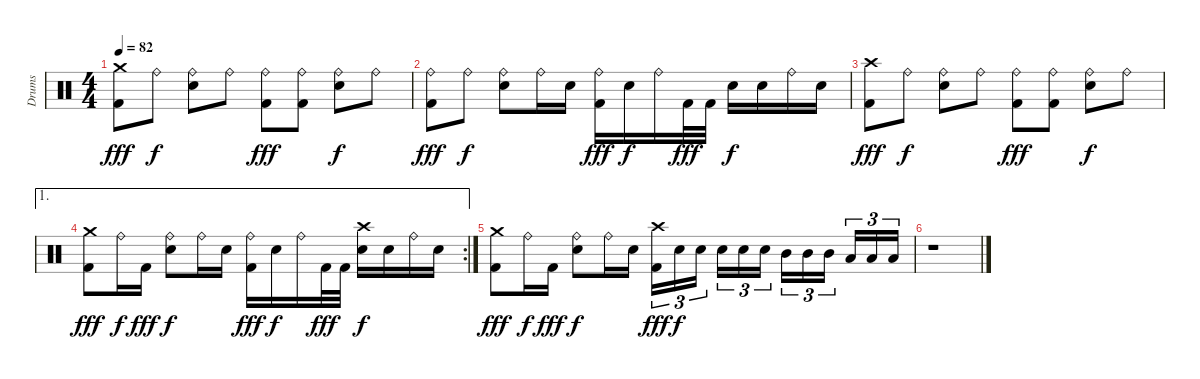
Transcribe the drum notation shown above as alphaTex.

\track ("Drums" "Drums") {instrument percussion}
\staff {score}
\articulation defaults
\ts (4 4)
\tempo 82
\clef neutral
\ks c
("Crash medium (hit)" "Kick (hit) 2").8{dy fff} "Ride (bell)".8{dy f} ("Ride (bell)" "Snare (hit) 2").8 "Ride (bell)".8 ("Ride (bell)" "Kick (hit) 2").8{dy fff} ("Ride (bell)" "Kick (hit) 2").8 ("Ride (bell)" "Snare (hit) 2").8{dy f} "Ride (bell)".8 |
("Ride (bell)" "Kick (hit) 2").8{dy fff} "Ride (bell)".8{dy f} ("Ride (bell)" "Snare (hit) 2").8 "Ride (bell)".16 "Snare (hit) 2".16 ("Ride (bell)" "Kick (hit) 2").16{dy fff} "Snare (hit) 2".16{dy f} "Ride (bell)".16 "Kick (hit) 2".32{dy fff} "Kick (hit) 2".32 "Snare (hit) 2".16{dy f} "Snare (hit) 2".16 "Ride (bell)".16 "Snare (hit) 2".16 |
("Crash high (hit)" "Kick (hit) 2").8{dy fff} "Ride (bell)".8{dy f} ("Ride (bell)" "Snare (hit) 2").8 "Ride (bell)".8 ("Ride (bell)" "Kick (hit) 2").8{dy fff} ("Ride (bell)" "Kick (hit) 2").8 ("Ride (bell)" "Snare (hit) 2").8{dy f} "Ride (bell)".8 |
\ae 1
\rc 2
("Crash medium (hit)" "Kick (hit) 2").8{dy fff} "Ride (bell)".16{dy f} "Kick (hit) 2".16{dy fff} ("Ride (bell)" "Snare (hit) 2").8{dy f} "Ride (bell)".16 "Snare (hit) 2".16 ("Ride (bell)" "Kick (hit) 2").16{dy fff} "Snare (hit) 2".16{dy f} "Ride (bell)".16 "Kick (hit) 2".32{dy fff} "Kick (hit) 2".32 ("Crash high (hit)" "Snare (hit) 2").16{dy f} "Snare (hit) 2".16 "Ride (bell)".16 "Snare (hit) 2".16 |
("Crash medium (hit)" "Kick (hit) 2").8{dy fff} "Ride (bell)".16{dy f} "Kick (hit) 2".16{dy fff} ("Ride (bell)" "Snare (hit) 2").8{dy f} "Ride (bell)".16 "Snare (hit) 2".16 ("Crash high (hit)" "Kick (hit) 2").16{tu (3 2) dy fff} "Snare (hit) 2".16{tu (3 2) dy f} "Snare (hit) 2".16{tu (3 2)} "Snare (hit) 2".16{tu (3 2)} "Snare (hit) 2".16{tu (3 2)} "Snare (hit) 2".16{tu (3 2)} "Mid Tom (hit)".16{tu (3 2)} "Mid Tom (hit)".16{tu (3 2)} "Mid Tom (hit)".16{tu (3 2)} "Low Tom (hit)".16{tu (3 2)} "Low Tom (hit)".16{tu (3 2)} "Low Tom (hit)".16{tu (3 2)} |
r.1
